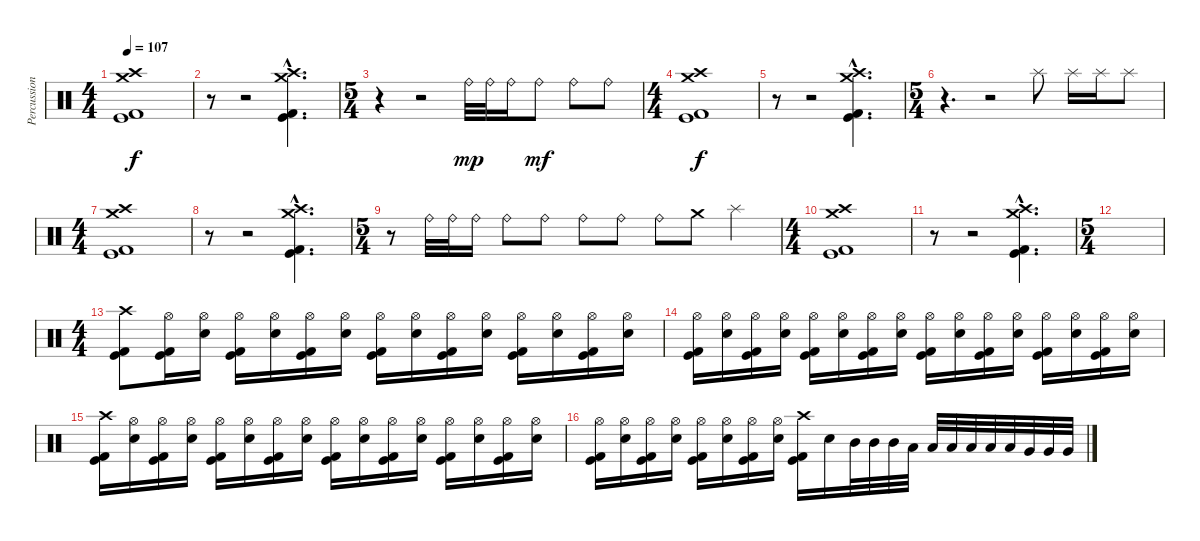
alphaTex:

\track ("Percussion" "Percussion") {instrument percussion}
\staff {score}
\articulation defaults
\ts (4 4)
\tempo 107
\clef neutral
\ks c
("Crash high (hit)" "Crash medium (hit)" "Kick (hit)" "Kick (hit) 2").1{dy f} |
r.8 r.2 ("Crash high (hit)"{hac} "Crash medium (hit)"{hac} "Kick (hit)"{hac} "Kick (hit) 2"{hac}).4{d} |
\ts (5 4)
r.4 r.2 "Ride (bell)".32{dy mp} "Ride (bell)".32 "Ride (bell)".16 "Ride (bell)".8{dy mf} "Ride (bell)".8 "Ride (bell)".8 |
\ts (4 4)
("Crash high (hit)" "Crash medium (hit)" "Kick (hit)" "Kick (hit) 2").1{dy f} |
r.8 r.2 ("Crash high (hit)"{hac} "Crash medium (hit)"{hac} "Kick (hit)"{hac} "Kick (hit) 2"{hac}).4{d} |
\ts (5 4)
r.4{d} r.2 "Splash (hit)".8 "Splash (hit)".16 "Splash (hit)".16 "Splash (hit)".8 |
\ts (4 4)
("Crash high (hit)" "Crash medium (hit)" "Kick (hit)" "Kick (hit) 2").1 |
r.8 r.2 ("Crash high (hit)"{hac} "Crash medium (hit)"{hac} "Kick (hit)"{hac} "Kick (hit) 2"{hac}).4{d} |
\ts (5 4)
r.8 "Ride (bell)".32 "Ride (bell)".32 "Ride (bell)".16 "Ride (bell)".8 "Ride (bell)".8 "Ride (bell)".8 "Ride (bell)".8 "Ride (bell)".8 "Crash medium (hit)".8 "Splash (hit)".4 |
\ts (4 4)
("Crash high (hit)" "Crash medium (hit)" "Kick (hit)" "Kick (hit) 2").1 |
r.8 r.2 ("Crash high (hit)"{hac} "Crash medium (hit)"{hac} "Kick (hit)"{hac} "Kick (hit) 2"{hac}).4{d} |
\ts (5 4)
|
\ts (4 4)
("Crash high (hit)" "Kick (hit)" "Kick (hit) 2").8 ("Hi-Hat (open)" "Kick (hit)" "Kick (hit) 2").16 ("Hi-Hat (open)" "Electric Snare (hit)").16 ("Hi-Hat (open)" "Kick (hit)" "Kick (hit) 2").16 ("Hi-Hat (open)" "Electric Snare (hit)").16 ("Hi-Hat (open)" "Kick (hit)" "Kick (hit) 2").16 ("Hi-Hat (open)" "Electric Snare (hit)").16 ("Hi-Hat (open)" "Kick (hit)" "Kick (hit) 2").16 ("Hi-Hat (open)" "Electric Snare (hit)").16 ("Hi-Hat (open)" "Kick (hit)" "Kick (hit) 2").16 ("Hi-Hat (open)" "Electric Snare (hit)").16 ("Hi-Hat (open)" "Kick (hit)" "Kick (hit) 2").16 ("Hi-Hat (open)" "Electric Snare (hit)").16 ("Hi-Hat (open)" "Kick (hit)" "Kick (hit) 2").16 ("Hi-Hat (open)" "Electric Snare (hit)").16 |
("Hi-Hat (open)" "Kick (hit)" "Kick (hit) 2").16 ("Hi-Hat (open)" "Electric Snare (hit)").16 ("Hi-Hat (open)" "Kick (hit)" "Kick (hit) 2").16 ("Hi-Hat (open)" "Electric Snare (hit)").16 ("Hi-Hat (open)" "Kick (hit)" "Kick (hit) 2").16 ("Hi-Hat (open)" "Electric Snare (hit)").16 ("Hi-Hat (open)" "Kick (hit)" "Kick (hit) 2").16 ("Hi-Hat (open)" "Electric Snare (hit)").16 ("Hi-Hat (open)" "Kick (hit)" "Kick (hit) 2").16 ("Hi-Hat (open)" "Electric Snare (hit)").16 ("Hi-Hat (open)" "Kick (hit)" "Kick (hit) 2").16 ("Hi-Hat (open)" "Electric Snare (hit)").16 ("Hi-Hat (open)" "Kick (hit)" "Kick (hit) 2").16 ("Hi-Hat (open)" "Electric Snare (hit)").16 ("Hi-Hat (open)" "Kick (hit)" "Kick (hit) 2").16 ("Hi-Hat (open)" "Electric Snare (hit)").16 |
("Crash high (hit)" "Kick (hit)" "Kick (hit) 2").16 ("Hi-Hat (open)" "Electric Snare (hit)").16 ("Hi-Hat (open)" "Kick (hit)" "Kick (hit) 2").16 ("Hi-Hat (open)" "Electric Snare (hit)").16 ("Hi-Hat (open)" "Kick (hit)" "Kick (hit) 2").16 ("Hi-Hat (open)" "Electric Snare (hit)").16 ("Hi-Hat (open)" "Kick (hit)" "Kick (hit) 2").16 ("Hi-Hat (open)" "Electric Snare (hit)").16 ("Hi-Hat (open)" "Kick (hit)" "Kick (hit) 2").16 ("Hi-Hat (open)" "Electric Snare (hit)").16 ("Hi-Hat (open)" "Kick (hit)" "Kick (hit) 2").16 ("Hi-Hat (open)" "Electric Snare (hit)").16 ("Hi-Hat (open)" "Kick (hit)" "Kick (hit) 2").16 ("Hi-Hat (open)" "Electric Snare (hit)").16 ("Hi-Hat (open)" "Kick (hit)" "Kick (hit) 2").16 ("Hi-Hat (open)" "Electric Snare (hit)").16 |
("Hi-Hat (open)" "Kick (hit)" "Kick (hit) 2").16 ("Hi-Hat (open)" "Electric Snare (hit)").16 ("Hi-Hat (open)" "Kick (hit)" "Kick (hit) 2").16 ("Hi-Hat (open)" "Electric Snare (hit)").16 ("Hi-Hat (open)" "Kick (hit)" "Kick (hit) 2").16 ("Hi-Hat (open)" "Electric Snare (hit)").16 ("Hi-Hat (open)" "Kick (hit)" "Kick (hit) 2").16 ("Hi-Hat (open)" "Electric Snare (hit)").16 ("Crash high (hit)" "Kick (hit)" "Kick (hit) 2").16 "Electric Snare (hit)".16 "Mid Tom (hit)".32 "Mid Tom (hit)".32 "Mid Tom (hit)".32 "Low Tom (hit)".32 "Low Tom (hit)".32 "Low Tom (hit)".32 "Low Tom (hit)".32 "Low Tom (hit)".32 "Low Tom (hit)".32 "Very Low Tom (hit)".32 "Very Low Tom (hit)".32 "Very Low Tom (hit)".32
